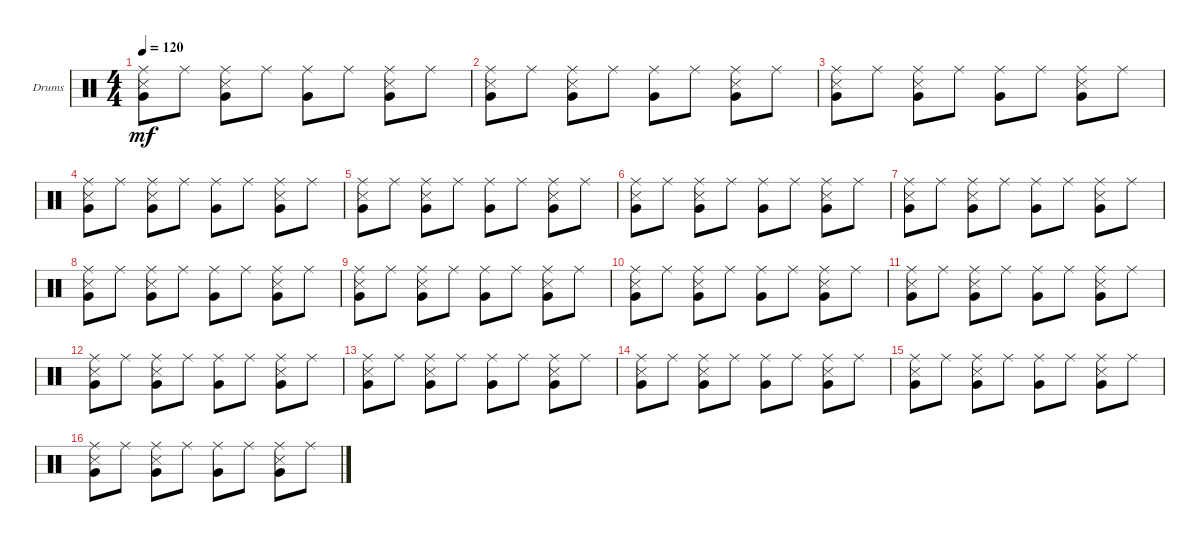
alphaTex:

\defaultSystemsLayout 4
\bracketExtendMode groupsimilarinstruments
\firstSystemTrackNameOrientation horizontal
\otherSystemsTrackNameOrientation horizontal
\track ("Drumkit" "Drums") {instrument percussion}
\staff {score}
\articulation defaults
\ts (4 4)
\tempo 120
\clef neutral
\ks c
("Ride (middle)" "Snare (side stick) 3" "Very Low Tom (hit)").8{dy mf} "Ride (middle)".8 ("Ride (middle)" "Snare (side stick) 3" "Very Low Tom (hit)").8 "Ride (middle)".8 ("Ride (middle)" "Very Low Tom (hit)").8 "Ride (middle)".8 ("Ride (middle)" "Snare (side stick) 3" "Very Low Tom (hit)").8 "Ride (middle)".8 |
("Ride (middle)" "Snare (side stick) 3" "Very Low Tom (hit)").8 "Ride (middle)".8 ("Ride (middle)" "Snare (side stick) 3" "Very Low Tom (hit)").8 "Ride (middle)".8 ("Ride (middle)" "Very Low Tom (hit)").8 "Ride (middle)".8 ("Ride (middle)" "Snare (side stick) 3" "Very Low Tom (hit)").8 "Ride (middle)".8 |
("Ride (middle)" "Snare (side stick) 3" "Very Low Tom (hit)").8 "Ride (middle)".8 ("Ride (middle)" "Snare (side stick) 3" "Very Low Tom (hit)").8 "Ride (middle)".8 ("Ride (middle)" "Very Low Tom (hit)").8 "Ride (middle)".8 ("Ride (middle)" "Snare (side stick) 3" "Very Low Tom (hit)").8 "Ride (middle)".8 |
("Ride (middle)" "Snare (side stick) 3" "Very Low Tom (hit)").8 "Ride (middle)".8 ("Ride (middle)" "Snare (side stick) 3" "Very Low Tom (hit)").8 "Ride (middle)".8 ("Ride (middle)" "Very Low Tom (hit)").8 "Ride (middle)".8 ("Ride (middle)" "Snare (side stick) 3" "Very Low Tom (hit)").8 "Ride (middle)".8 |
("Ride (middle)" "Snare (side stick) 3" "Very Low Tom (hit)").8 "Ride (middle)".8 ("Ride (middle)" "Snare (side stick) 3" "Very Low Tom (hit)").8 "Ride (middle)".8 ("Ride (middle)" "Very Low Tom (hit)").8 "Ride (middle)".8 ("Ride (middle)" "Snare (side stick) 3" "Very Low Tom (hit)").8 "Ride (middle)".8 |
("Ride (middle)" "Snare (side stick) 3" "Very Low Tom (hit)").8 "Ride (middle)".8 ("Ride (middle)" "Snare (side stick) 3" "Very Low Tom (hit)").8 "Ride (middle)".8 ("Ride (middle)" "Very Low Tom (hit)").8 "Ride (middle)".8 ("Ride (middle)" "Snare (side stick) 3" "Very Low Tom (hit)").8 "Ride (middle)".8 |
("Ride (middle)" "Snare (side stick) 3" "Very Low Tom (hit)").8 "Ride (middle)".8 ("Ride (middle)" "Snare (side stick) 3" "Very Low Tom (hit)").8 "Ride (middle)".8 ("Ride (middle)" "Very Low Tom (hit)").8 "Ride (middle)".8 ("Ride (middle)" "Snare (side stick) 3" "Very Low Tom (hit)").8 "Ride (middle)".8 |
("Ride (middle)" "Snare (side stick) 3" "Very Low Tom (hit)").8 "Ride (middle)".8 ("Ride (middle)" "Snare (side stick) 3" "Very Low Tom (hit)").8 "Ride (middle)".8 ("Ride (middle)" "Very Low Tom (hit)").8 "Ride (middle)".8 ("Ride (middle)" "Snare (side stick) 3" "Very Low Tom (hit)").8 "Ride (middle)".8 |
("Ride (middle)" "Snare (side stick) 3" "Very Low Tom (hit)").8 "Ride (middle)".8 ("Ride (middle)" "Snare (side stick) 3" "Very Low Tom (hit)").8 "Ride (middle)".8 ("Ride (middle)" "Very Low Tom (hit)").8 "Ride (middle)".8 ("Ride (middle)" "Snare (side stick) 3" "Very Low Tom (hit)").8 "Ride (middle)".8 |
("Ride (middle)" "Snare (side stick) 3" "Very Low Tom (hit)").8 "Ride (middle)".8 ("Ride (middle)" "Snare (side stick) 3" "Very Low Tom (hit)").8 "Ride (middle)".8 ("Ride (middle)" "Very Low Tom (hit)").8 "Ride (middle)".8 ("Ride (middle)" "Snare (side stick) 3" "Very Low Tom (hit)").8 "Ride (middle)".8 |
("Ride (middle)" "Snare (side stick) 3" "Very Low Tom (hit)").8 "Ride (middle)".8 ("Ride (middle)" "Snare (side stick) 3" "Very Low Tom (hit)").8 "Ride (middle)".8 ("Ride (middle)" "Very Low Tom (hit)").8 "Ride (middle)".8 ("Ride (middle)" "Snare (side stick) 3" "Very Low Tom (hit)").8 "Ride (middle)".8 |
("Ride (middle)" "Snare (side stick) 3" "Very Low Tom (hit)").8 "Ride (middle)".8 ("Ride (middle)" "Snare (side stick) 3" "Very Low Tom (hit)").8 "Ride (middle)".8 ("Ride (middle)" "Very Low Tom (hit)").8 "Ride (middle)".8 ("Ride (middle)" "Snare (side stick) 3" "Very Low Tom (hit)").8 "Ride (middle)".8 |
("Ride (middle)" "Snare (side stick) 3" "Very Low Tom (hit)").8 "Ride (middle)".8 ("Ride (middle)" "Snare (side stick) 3" "Very Low Tom (hit)").8 "Ride (middle)".8 ("Ride (middle)" "Very Low Tom (hit)").8 "Ride (middle)".8 ("Ride (middle)" "Snare (side stick) 3" "Very Low Tom (hit)").8 "Ride (middle)".8 |
("Ride (middle)" "Snare (side stick) 3" "Very Low Tom (hit)").8 "Ride (middle)".8 ("Ride (middle)" "Snare (side stick) 3" "Very Low Tom (hit)").8 "Ride (middle)".8 ("Ride (middle)" "Very Low Tom (hit)").8 "Ride (middle)".8 ("Ride (middle)" "Snare (side stick) 3" "Very Low Tom (hit)").8 "Ride (middle)".8 |
("Ride (middle)" "Snare (side stick) 3" "Very Low Tom (hit)").8 "Ride (middle)".8 ("Ride (middle)" "Snare (side stick) 3" "Very Low Tom (hit)").8 "Ride (middle)".8 ("Ride (middle)" "Very Low Tom (hit)").8 "Ride (middle)".8 ("Ride (middle)" "Snare (side stick) 3" "Very Low Tom (hit)").8 "Ride (middle)".8 |
("Ride (middle)" "Snare (side stick) 3" "Very Low Tom (hit)").8 "Ride (middle)".8 ("Ride (middle)" "Snare (side stick) 3" "Very Low Tom (hit)").8 "Ride (middle)".8 ("Ride (middle)" "Very Low Tom (hit)").8 "Ride (middle)".8 ("Ride (middle)" "Snare (side stick) 3" "Very Low Tom (hit)").8 "Ride (middle)".8
